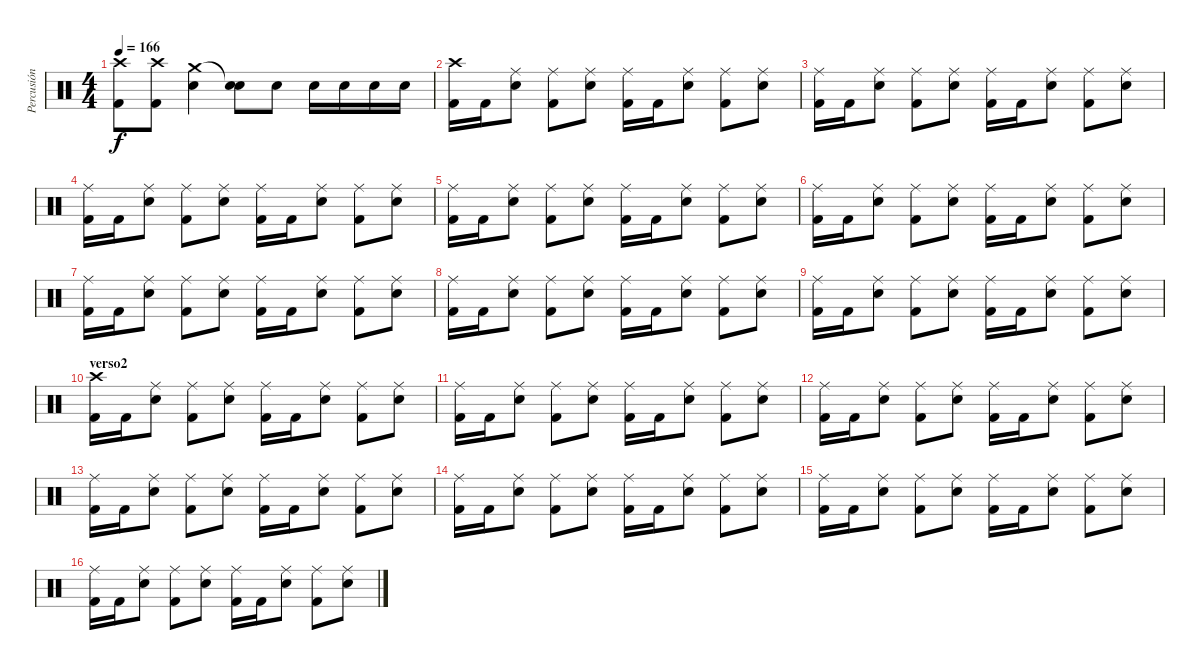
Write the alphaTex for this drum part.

\track ("Percusión" "Percusión") {instrument percussion}
\staff {score}
\articulation defaults
\ts (4 4)
\tempo 166
\clef neutral
\ks c
("Crash high (hit)" "Kick (hit) 2").8{dy f} ("Crash high (hit)" "Kick (hit) 2").8 ("Crash medium (hit)" "Electric Snare (hit)").4 ("Snare (hit)"{t} "Electric Snare (hit)").8 "Electric Snare (hit)".8 "Electric Snare (hit)".16 "Electric Snare (hit)".16 "Electric Snare (hit)".16 "Electric Snare (hit)".16 |
("Crash high (hit)" "Kick (hit) 2").16 "Kick (hit) 2".16 ("Ride (middle)" "Electric Snare (hit)").8 ("Ride (middle)" "Kick (hit) 2").8 ("Ride (middle)" "Electric Snare (hit)").8 ("Ride (middle)" "Kick (hit) 2").16 "Kick (hit) 2".16 ("Ride (middle)" "Electric Snare (hit)").8 ("Ride (middle)" "Kick (hit) 2").8 ("Ride (middle)" "Electric Snare (hit)").8 |
("Ride (middle)" "Kick (hit) 2").16 "Kick (hit) 2".16 ("Ride (middle)" "Electric Snare (hit)").8 ("Ride (middle)" "Kick (hit) 2").8 ("Ride (middle)" "Electric Snare (hit)").8 ("Ride (middle)" "Kick (hit) 2").16 "Kick (hit) 2".16 ("Ride (middle)" "Electric Snare (hit)").8 ("Ride (middle)" "Kick (hit) 2").8 ("Ride (middle)" "Electric Snare (hit)").8 |
("Ride (middle)" "Kick (hit) 2").16 "Kick (hit) 2".16 ("Ride (middle)" "Electric Snare (hit)").8 ("Ride (middle)" "Kick (hit) 2").8 ("Ride (middle)" "Electric Snare (hit)").8 ("Ride (middle)" "Kick (hit) 2").16 "Kick (hit) 2".16 ("Ride (middle)" "Electric Snare (hit)").8 ("Ride (middle)" "Kick (hit) 2").8 ("Ride (middle)" "Electric Snare (hit)").8 |
("Ride (middle)" "Kick (hit) 2").16 "Kick (hit) 2".16 ("Ride (middle)" "Electric Snare (hit)").8 ("Ride (middle)" "Kick (hit) 2").8 ("Ride (middle)" "Electric Snare (hit)").8 ("Ride (middle)" "Kick (hit) 2").16 "Kick (hit) 2".16 ("Ride (middle)" "Electric Snare (hit)").8 ("Ride (middle)" "Kick (hit) 2").8 ("Ride (middle)" "Electric Snare (hit)").8 |
("Ride (middle)" "Kick (hit) 2").16 "Kick (hit) 2".16 ("Ride (middle)" "Electric Snare (hit)").8 ("Ride (middle)" "Kick (hit) 2").8 ("Ride (middle)" "Electric Snare (hit)").8 ("Ride (middle)" "Kick (hit) 2").16 "Kick (hit) 2".16 ("Ride (middle)" "Electric Snare (hit)").8 ("Ride (middle)" "Kick (hit) 2").8 ("Ride (middle)" "Electric Snare (hit)").8 |
("Ride (middle)" "Kick (hit) 2").16 "Kick (hit) 2".16 ("Ride (middle)" "Electric Snare (hit)").8 ("Ride (middle)" "Kick (hit) 2").8 ("Ride (middle)" "Electric Snare (hit)").8 ("Ride (middle)" "Kick (hit) 2").16 "Kick (hit) 2".16 ("Ride (middle)" "Electric Snare (hit)").8 ("Ride (middle)" "Kick (hit) 2").8 ("Ride (middle)" "Electric Snare (hit)").8 |
("Ride (middle)" "Kick (hit) 2").16 "Kick (hit) 2".16 ("Ride (middle)" "Electric Snare (hit)").8 ("Ride (middle)" "Kick (hit) 2").8 ("Ride (middle)" "Electric Snare (hit)").8 ("Ride (middle)" "Kick (hit) 2").16 "Kick (hit) 2".16 ("Ride (middle)" "Electric Snare (hit)").8 ("Ride (middle)" "Kick (hit) 2").8 ("Ride (middle)" "Electric Snare (hit)").8 |
("Ride (middle)" "Kick (hit) 2").16 "Kick (hit) 2".16 ("Ride (middle)" "Electric Snare (hit)").8 ("Ride (middle)" "Kick (hit) 2").8 ("Ride (middle)" "Electric Snare (hit)").8 ("Ride (middle)" "Kick (hit) 2").16 "Kick (hit) 2".16 ("Ride (middle)" "Electric Snare (hit)").8 ("Ride (middle)" "Kick (hit) 2").8 ("Ride (middle)" "Electric Snare (hit)").8 |
\section ("" "verso2")
("Crash high (hit)" "Kick (hit) 2").16 "Kick (hit) 2".16 ("Ride (middle)" "Electric Snare (hit)").8 ("Ride (middle)" "Kick (hit) 2").8 ("Ride (middle)" "Electric Snare (hit)").8 ("Ride (middle)" "Kick (hit) 2").16 "Kick (hit) 2".16 ("Ride (middle)" "Electric Snare (hit)").8 ("Ride (middle)" "Kick (hit) 2").8 ("Ride (middle)" "Electric Snare (hit)").8 |
("Ride (middle)" "Kick (hit) 2").16 "Kick (hit) 2".16 ("Ride (middle)" "Electric Snare (hit)").8 ("Ride (middle)" "Kick (hit) 2").8 ("Ride (middle)" "Electric Snare (hit)").8 ("Ride (middle)" "Kick (hit) 2").16 "Kick (hit) 2".16 ("Ride (middle)" "Electric Snare (hit)").8 ("Ride (middle)" "Kick (hit) 2").8 ("Ride (middle)" "Electric Snare (hit)").8 |
("Ride (middle)" "Kick (hit) 2").16 "Kick (hit) 2".16 ("Ride (middle)" "Electric Snare (hit)").8 ("Ride (middle)" "Kick (hit) 2").8 ("Ride (middle)" "Electric Snare (hit)").8 ("Ride (middle)" "Kick (hit) 2").16 "Kick (hit) 2".16 ("Ride (middle)" "Electric Snare (hit)").8 ("Ride (middle)" "Kick (hit) 2").8 ("Ride (middle)" "Electric Snare (hit)").8 |
("Ride (middle)" "Kick (hit) 2").16 "Kick (hit) 2".16 ("Ride (middle)" "Electric Snare (hit)").8 ("Ride (middle)" "Kick (hit) 2").8 ("Ride (middle)" "Electric Snare (hit)").8 ("Ride (middle)" "Kick (hit) 2").16 "Kick (hit) 2".16 ("Ride (middle)" "Electric Snare (hit)").8 ("Ride (middle)" "Kick (hit) 2").8 ("Ride (middle)" "Electric Snare (hit)").8 |
("Ride (middle)" "Kick (hit) 2").16 "Kick (hit) 2".16 ("Ride (middle)" "Electric Snare (hit)").8 ("Ride (middle)" "Kick (hit) 2").8 ("Ride (middle)" "Electric Snare (hit)").8 ("Ride (middle)" "Kick (hit) 2").16 "Kick (hit) 2".16 ("Ride (middle)" "Electric Snare (hit)").8 ("Ride (middle)" "Kick (hit) 2").8 ("Ride (middle)" "Electric Snare (hit)").8 |
("Ride (middle)" "Kick (hit) 2").16 "Kick (hit) 2".16 ("Ride (middle)" "Electric Snare (hit)").8 ("Ride (middle)" "Kick (hit) 2").8 ("Ride (middle)" "Electric Snare (hit)").8 ("Ride (middle)" "Kick (hit) 2").16 "Kick (hit) 2".16 ("Ride (middle)" "Electric Snare (hit)").8 ("Ride (middle)" "Kick (hit) 2").8 ("Ride (middle)" "Electric Snare (hit)").8 |
("Ride (middle)" "Kick (hit) 2").16 "Kick (hit) 2".16 ("Ride (middle)" "Electric Snare (hit)").8 ("Ride (middle)" "Kick (hit) 2").8 ("Ride (middle)" "Electric Snare (hit)").8 ("Ride (middle)" "Kick (hit) 2").16 "Kick (hit) 2".16 ("Ride (middle)" "Electric Snare (hit)").8 ("Ride (middle)" "Kick (hit) 2").8 ("Ride (middle)" "Electric Snare (hit)").8
